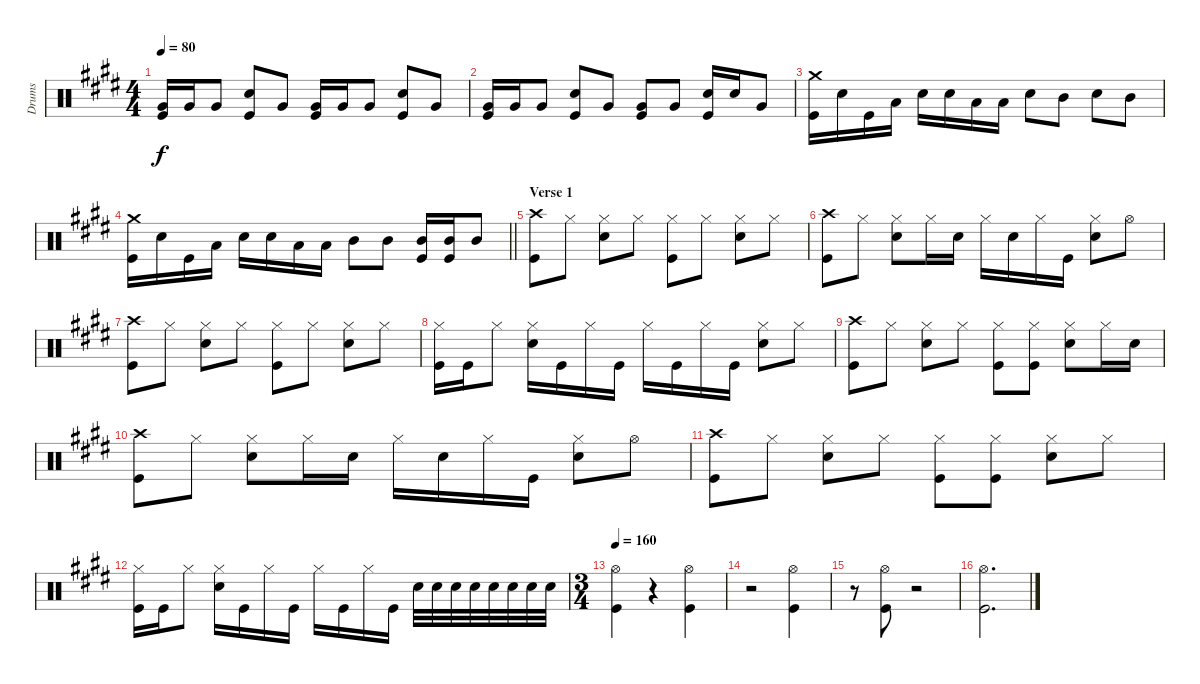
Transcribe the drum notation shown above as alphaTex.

\track ("Drums" "Drums") {instrument percussion}
\staff {score}
\articulation defaults
\ts (4 4)
\tempo 80
\clef neutral
\ks e
("Very Low Tom (hit)" "Kick (hit)").16{dy f} "Very Low Tom (hit)".16 "Very Low Tom (hit)".8 ("Snare (hit) 2" "Kick (hit)").8 "Very Low Tom (hit)".8 ("Very Low Tom (hit)" "Kick (hit)").16 "Very Low Tom (hit)".16 "Very Low Tom (hit)".8 ("Snare (hit) 2" "Kick (hit)").8 "Very Low Tom (hit)".8 |
("Very Low Tom (hit)" "Kick (hit)").16 "Very Low Tom (hit)".16 "Very Low Tom (hit)".8 ("Snare (hit) 2" "Kick (hit)").8 "Very Low Tom (hit)".8 ("Very Low Tom (hit)" "Kick (hit)").8 "Very Low Tom (hit)".8 ("Snare (hit) 2" "Kick (hit)").16 "Snare (hit) 2".16 "Very Low Tom (hit)".8 |
("Crash medium (hit)" "Kick (hit)").16 "Snare (hit) 2".16 "Kick (hit)".16 "Low Floor Tom (hit)".16 "Snare (hit) 2".16 "Snare (hit) 2".16 "Low Floor Tom (hit)".16 "Low Floor Tom (hit)".16 "Snare (hit) 2".8 "Mid Tom (hit)".8 "Snare (hit) 2".8 "Mid Tom (hit)".8 |
\barLineRight lightlight
("Crash medium (hit)" "Kick (hit)").16 "Snare (hit) 2".16 "Kick (hit)".16 "Low Floor Tom (hit)".16 "Snare (hit) 2".16 "Snare (hit) 2".16 "Low Floor Tom (hit)".16 "Low Floor Tom (hit)".16 "Mid Tom (hit)".8 "Mid Tom (hit)".8 ("Mid Tom (hit)" "Kick (hit)").16 ("Mid Tom (hit)" "Kick (hit)").16 "Mid Tom (hit)".8 |
\section ("" "Verse 1")
("Crash high (hit)" "Kick (hit)").8 "Hi-Hat (closed)".8 ("Hi-Hat (closed)" "Snare (hit) 2").8 "Hi-Hat (closed)".8 ("Hi-Hat (closed)" "Kick (hit)").8 "Hi-Hat (closed)".8 ("Hi-Hat (closed)" "Snare (hit) 2").8 "Hi-Hat (closed)".8 |
("Crash high (hit)" "Kick (hit)").8 "Hi-Hat (closed)".8 ("Hi-Hat (closed)" "Snare (hit) 2").8 "Hi-Hat (closed)".16 "Snare (hit) 2".16 "Hi-Hat (closed)".16 "Snare (hit) 2".16 "Hi-Hat (closed)".16 "Kick (hit)".16 ("Hi-Hat (closed)" "Snare (hit) 2").8 "Hi-Hat (open)".8 |
("Crash high (hit)" "Kick (hit)").8 "Hi-Hat (closed)".8 ("Hi-Hat (closed)" "Snare (hit) 2").8 "Hi-Hat (closed)".8 ("Hi-Hat (closed)" "Kick (hit)").8 "Hi-Hat (closed)".8 ("Hi-Hat (closed)" "Snare (hit) 2").8 "Hi-Hat (closed)".8 |
("Hi-Hat (closed)" "Kick (hit)").16 "Kick (hit)".16 "Hi-Hat (closed)".8 ("Hi-Hat (closed)" "Snare (hit) 2").16 "Kick (hit)".16 "Hi-Hat (closed)".16 "Kick (hit)".16 "Hi-Hat (closed)".16 "Kick (hit)".16 "Hi-Hat (closed)".16 "Kick (hit)".16 ("Hi-Hat (closed)" "Snare (hit) 2").8 "Hi-Hat (closed)".8 |
("Crash high (hit)" "Kick (hit)").8 "Hi-Hat (closed)".8 ("Hi-Hat (closed)" "Snare (hit) 2").8 "Hi-Hat (closed)".8 ("Hi-Hat (closed)" "Kick (hit)").8 ("Hi-Hat (closed)" "Kick (hit)").8 ("Hi-Hat (closed)" "Snare (hit) 2").8 "Hi-Hat (closed)".16 "Snare (hit) 2".16 |
("Crash high (hit)" "Kick (hit)").8 "Hi-Hat (closed)".8 ("Hi-Hat (closed)" "Snare (hit) 2").8 "Hi-Hat (closed)".16 "Snare (hit) 2".16 "Hi-Hat (closed)".16 "Snare (hit) 2".16 "Hi-Hat (closed)".16 "Kick (hit)".16 ("Hi-Hat (closed)" "Snare (hit) 2").8 "Hi-Hat (open)".8 |
("Crash high (hit)" "Kick (hit)").8 "Hi-Hat (closed)".8 ("Hi-Hat (closed)" "Snare (hit) 2").8 "Hi-Hat (closed)".8 ("Hi-Hat (closed)" "Kick (hit)").8 ("Hi-Hat (closed)" "Kick (hit)").8 ("Hi-Hat (closed)" "Snare (hit) 2").8 "Hi-Hat (closed)".8 |
("Hi-Hat (closed)" "Kick (hit)").16 "Kick (hit)".16 "Hi-Hat (closed)".8 ("Hi-Hat (closed)" "Snare (hit) 2").16 "Kick (hit)".16 "Hi-Hat (closed)".16 "Kick (hit)".16 "Hi-Hat (closed)".16 "Kick (hit)".16 "Hi-Hat (closed)".16 "Kick (hit)".16 "Snare (hit) 2".32 "Snare (hit) 2".32 "Snare (hit) 2".32 "Snare (hit) 2".32 "Snare (hit) 2".32 "Snare (hit) 2".32 "Snare (hit) 2".32 "Snare (hit) 2".32 |
\ts (3 4)
\tempo 165
\tempo 160
("Hi-Hat (open)" "Kick (hit)").4 r.4 ("Hi-Hat (open)" "Kick (hit)").4 |
r.2 ("Hi-Hat (open)" "Kick (hit)").4 |
r.8 ("Hi-Hat (open)" "Kick (hit)").8 r.2 |
("Hi-Hat (open)" "Kick (hit)").2{d}
